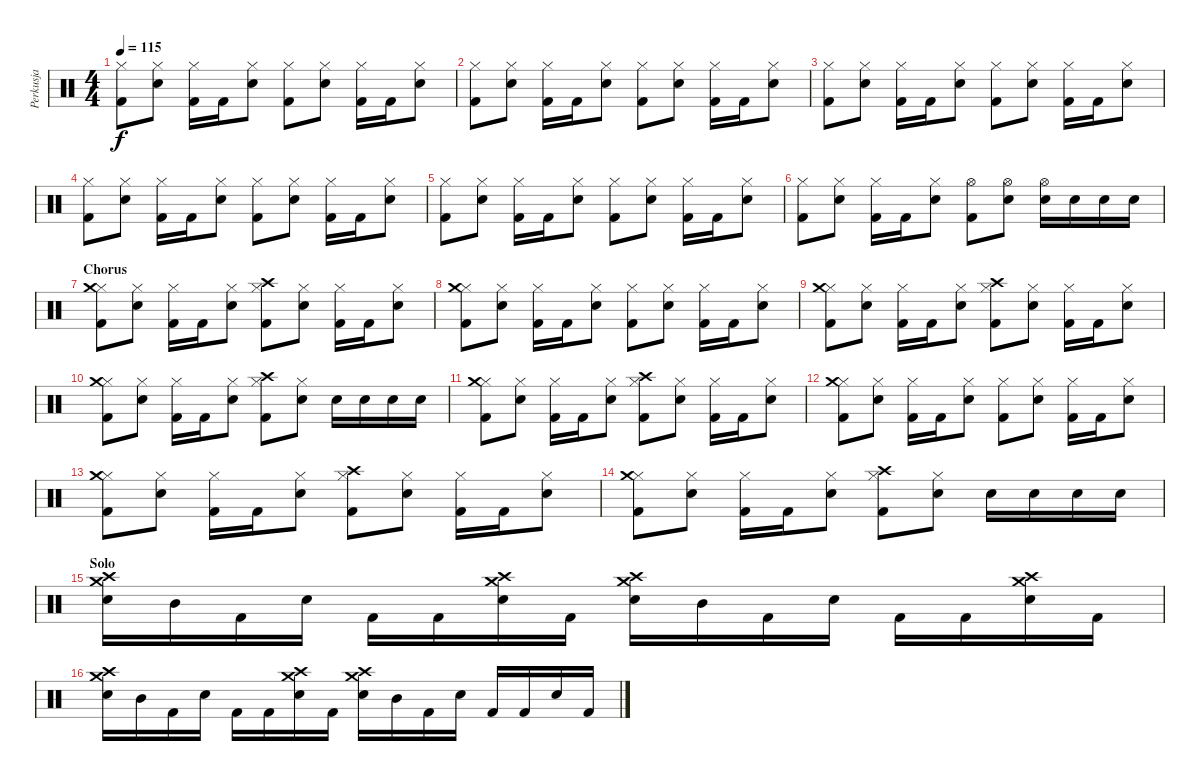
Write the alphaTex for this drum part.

\track ("Perkusja" "Perkusja") {instrument percussion}
\staff {score}
\articulation defaults
\ts (4 4)
\tempo 115
\clef neutral
\ks c
("Hi-Hat (closed)" "Kick (hit) 2").8{dy f} ("Hi-Hat (closed)" "Electric Snare (hit)").8 ("Hi-Hat (closed)" "Kick (hit) 2").16 "Kick (hit) 2".16 ("Hi-Hat (closed)" "Electric Snare (hit)").8 ("Hi-Hat (closed)" "Kick (hit) 2").8 ("Hi-Hat (closed)" "Electric Snare (hit)").8 ("Hi-Hat (closed)" "Kick (hit) 2").16 "Kick (hit) 2".16 ("Hi-Hat (closed)" "Electric Snare (hit)").8 |
("Hi-Hat (closed)" "Kick (hit) 2").8 ("Hi-Hat (closed)" "Electric Snare (hit)").8 ("Hi-Hat (closed)" "Kick (hit) 2").16 "Kick (hit) 2".16 ("Hi-Hat (closed)" "Electric Snare (hit)").8 ("Hi-Hat (closed)" "Kick (hit) 2").8 ("Hi-Hat (closed)" "Electric Snare (hit)").8 ("Hi-Hat (closed)" "Kick (hit) 2").16 "Kick (hit) 2".16 ("Hi-Hat (closed)" "Electric Snare (hit)").8 |
("Hi-Hat (closed)" "Kick (hit) 2").8 ("Hi-Hat (closed)" "Electric Snare (hit)").8 ("Hi-Hat (closed)" "Kick (hit) 2").16 "Kick (hit) 2".16 ("Hi-Hat (closed)" "Electric Snare (hit)").8 ("Hi-Hat (closed)" "Kick (hit) 2").8 ("Hi-Hat (closed)" "Electric Snare (hit)").8 ("Hi-Hat (closed)" "Kick (hit) 2").16 "Kick (hit) 2".16 ("Hi-Hat (closed)" "Electric Snare (hit)").8 |
("Hi-Hat (closed)" "Kick (hit) 2").8 ("Hi-Hat (closed)" "Electric Snare (hit)").8 ("Hi-Hat (closed)" "Kick (hit) 2").16 "Kick (hit) 2".16 ("Hi-Hat (closed)" "Electric Snare (hit)").8 ("Hi-Hat (closed)" "Kick (hit) 2").8 ("Hi-Hat (closed)" "Electric Snare (hit)").8 ("Hi-Hat (closed)" "Kick (hit) 2").16 "Kick (hit) 2".16 ("Hi-Hat (closed)" "Electric Snare (hit)").8 |
("Hi-Hat (closed)" "Kick (hit) 2").8 ("Hi-Hat (closed)" "Electric Snare (hit)").8 ("Hi-Hat (closed)" "Kick (hit) 2").16 "Kick (hit) 2".16 ("Hi-Hat (closed)" "Electric Snare (hit)").8 ("Hi-Hat (closed)" "Kick (hit) 2").8 ("Hi-Hat (closed)" "Electric Snare (hit)").8 ("Hi-Hat (closed)" "Kick (hit) 2").16 "Kick (hit) 2".16 ("Hi-Hat (closed)" "Electric Snare (hit)").8 |
("Hi-Hat (closed)" "Kick (hit) 2").8 ("Hi-Hat (closed)" "Electric Snare (hit)").8 ("Hi-Hat (closed)" "Kick (hit) 2").16 "Kick (hit) 2".16 ("Hi-Hat (closed)" "Electric Snare (hit)").8 ("Hi-Hat (open)" "Kick (hit) 2").8 ("Hi-Hat (open)" "Electric Snare (hit)").8 ("Hi-Hat (open)" "Electric Snare (hit)").16 "Electric Snare (hit)".16 "Electric Snare (hit)".16 "Electric Snare (hit)".16 |
\section ("" "Chorus")
("Hi-Hat (closed)" "Kick (hit) 2" "Crash medium (hit)").8 ("Hi-Hat (closed)" "Electric Snare (hit)").8 ("Hi-Hat (closed)" "Kick (hit) 2").16 "Kick (hit) 2".16 ("Hi-Hat (closed)" "Electric Snare (hit)").8 ("Hi-Hat (closed)" "Kick (hit) 2" "Crash high (hit)").8 ("Hi-Hat (closed)" "Electric Snare (hit)").8 ("Hi-Hat (closed)" "Kick (hit) 2").16 "Kick (hit) 2".16 ("Hi-Hat (closed)" "Electric Snare (hit)").8 |
("Hi-Hat (closed)" "Kick (hit) 2" "Crash medium (hit)").8 ("Hi-Hat (closed)" "Electric Snare (hit)").8 ("Hi-Hat (closed)" "Kick (hit) 2").16 "Kick (hit) 2".16 ("Hi-Hat (closed)" "Electric Snare (hit)").8 ("Hi-Hat (closed)" "Kick (hit) 2").8 ("Hi-Hat (closed)" "Electric Snare (hit)").8 ("Hi-Hat (closed)" "Kick (hit) 2").16 "Kick (hit) 2".16 ("Hi-Hat (closed)" "Electric Snare (hit)").8 |
("Hi-Hat (closed)" "Kick (hit) 2" "Crash medium (hit)").8 ("Hi-Hat (closed)" "Electric Snare (hit)").8 ("Hi-Hat (closed)" "Kick (hit) 2").16 "Kick (hit) 2".16 ("Hi-Hat (closed)" "Electric Snare (hit)").8 ("Hi-Hat (closed)" "Kick (hit) 2" "Crash high (hit)").8 ("Hi-Hat (closed)" "Electric Snare (hit)").8 ("Hi-Hat (closed)" "Kick (hit) 2").16 "Kick (hit) 2".16 ("Hi-Hat (closed)" "Electric Snare (hit)").8 |
("Hi-Hat (closed)" "Kick (hit) 2" "Crash medium (hit)").8 ("Hi-Hat (closed)" "Electric Snare (hit)").8 ("Hi-Hat (closed)" "Kick (hit) 2").16 "Kick (hit) 2".16 ("Hi-Hat (closed)" "Electric Snare (hit)").8 ("Hi-Hat (closed)" "Kick (hit) 2" "Crash high (hit)").8 ("Hi-Hat (closed)" "Electric Snare (hit)").8 "Electric Snare (hit)".16 "Electric Snare (hit)".16 "Electric Snare (hit)".16 "Electric Snare (hit)".16 |
("Hi-Hat (closed)" "Kick (hit) 2" "Crash medium (hit)").8 ("Hi-Hat (closed)" "Electric Snare (hit)").8 ("Hi-Hat (closed)" "Kick (hit) 2").16 "Kick (hit) 2".16 ("Hi-Hat (closed)" "Electric Snare (hit)").8 ("Hi-Hat (closed)" "Kick (hit) 2" "Crash high (hit)").8 ("Hi-Hat (closed)" "Electric Snare (hit)").8 ("Hi-Hat (closed)" "Kick (hit) 2").16 "Kick (hit) 2".16 ("Hi-Hat (closed)" "Electric Snare (hit)").8 |
("Hi-Hat (closed)" "Kick (hit) 2" "Crash medium (hit)").8 ("Hi-Hat (closed)" "Electric Snare (hit)").8 ("Hi-Hat (closed)" "Kick (hit) 2").16 "Kick (hit) 2".16 ("Hi-Hat (closed)" "Electric Snare (hit)").8 ("Hi-Hat (closed)" "Kick (hit) 2").8 ("Hi-Hat (closed)" "Electric Snare (hit)").8 ("Hi-Hat (closed)" "Kick (hit) 2").16 "Kick (hit) 2".16 ("Hi-Hat (closed)" "Electric Snare (hit)").8 |
("Hi-Hat (closed)" "Kick (hit) 2" "Crash medium (hit)").8 ("Hi-Hat (closed)" "Electric Snare (hit)").8 ("Hi-Hat (closed)" "Kick (hit) 2").16 "Kick (hit) 2".16 ("Hi-Hat (closed)" "Electric Snare (hit)").8 ("Hi-Hat (closed)" "Kick (hit) 2" "Crash high (hit)").8 ("Hi-Hat (closed)" "Electric Snare (hit)").8 ("Hi-Hat (closed)" "Kick (hit) 2").16 "Kick (hit) 2".16 ("Hi-Hat (closed)" "Electric Snare (hit)").8 |
("Hi-Hat (closed)" "Kick (hit) 2" "Crash medium (hit)").8 ("Hi-Hat (closed)" "Electric Snare (hit)").8 ("Hi-Hat (closed)" "Kick (hit) 2").16 "Kick (hit) 2".16 ("Hi-Hat (closed)" "Electric Snare (hit)").8 ("Hi-Hat (closed)" "Kick (hit) 2" "Crash high (hit)").8 ("Hi-Hat (closed)" "Electric Snare (hit)").8 "Electric Snare (hit)".16 "Electric Snare (hit)".16 "Electric Snare (hit)".16 "Electric Snare (hit)".16 |
\section ("" "Solo")
("Electric Snare (hit)" "Crash medium (hit)" "Crash high (hit)").16 "Mid Tom (hit)".16 "Kick (hit) 2".16 "Electric Snare (hit)".16 "Kick (hit) 2".16 "Kick (hit) 2".16 ("Electric Snare (hit)" "Crash medium (hit)" "Crash high (hit)").16 "Kick (hit) 2".16 ("Electric Snare (hit)" "Crash medium (hit)" "Crash high (hit)").16 "Mid Tom (hit)".16 "Kick (hit) 2".16 "Electric Snare (hit)".16 "Kick (hit) 2".16 "Kick (hit) 2".16 ("Electric Snare (hit)" "Crash medium (hit)" "Crash high (hit)").16 "Kick (hit) 2".16 |
("Electric Snare (hit)" "Crash medium (hit)" "Crash high (hit)").16 "Mid Tom (hit)".16 "Kick (hit) 2".16 "Electric Snare (hit)".16 "Kick (hit) 2".16 "Kick (hit) 2".16 ("Electric Snare (hit)" "Crash medium (hit)" "Crash high (hit)").16 "Kick (hit) 2".16 ("Electric Snare (hit)" "Crash medium (hit)" "Crash high (hit)").16 "Mid Tom (hit)".16 "Kick (hit) 2".16 "Electric Snare (hit)".16 "Kick (hit) 2".16 "Kick (hit) 2".16 "Electric Snare (hit)".16 "Kick (hit) 2".16
